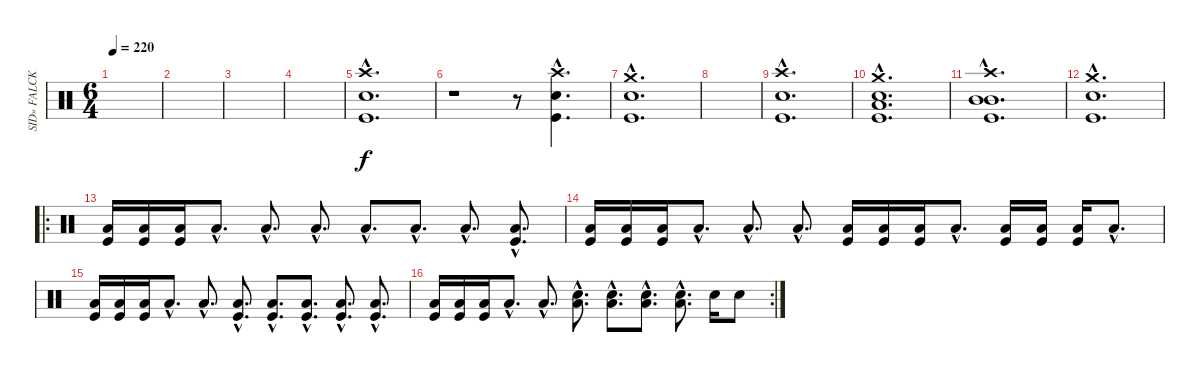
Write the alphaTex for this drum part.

\track ("SID» FALCK- Drums " "SID» FALCK") {instrument percussion}
\staff {score}
\articulation defaults
\ts (6 4)
\tempo 220
\clef neutral
\ks c
|
|
|
|
("Crash high (hit)"{hac} "Electric Snare (hit)"{hac} "Kick (hit)"{hac}).1{d} |
r.1 r.8 ("Crash high (hit)"{hac} "Electric Snare (hit)"{hac} "Kick (hit)"{hac}).4{d} |
("Crash medium (hit)"{hac} "Electric Snare (hit)"{hac} "Kick (hit)"{hac}).1{d} |
|
("Crash high (hit)"{hac} "Electric Snare (hit)"{hac} "Kick (hit)"{hac}).1{d} |
("Crash medium (hit)"{hac} "Electric Snare (hit)"{hac} "Low Tom (hit)"{hac} "Kick (hit)"{hac}).1{d} |
("Crash high (hit)"{hac} "Mid Tom (hit)"{hac} "Mid Tom (hit)"{hac} "Kick (hit)"{hac}).1{d} |
("Crash medium (hit)"{hac} "Electric Snare (hit)"{hac} "Kick (hit)"{hac}).1{d} |
\ro
("Low Tom (hit)" "Kick (hit)").16 ("Low Tom (hit)" "Kick (hit)").16 ("Low Tom (hit)" "Kick (hit)").16 "Low Tom (hit)"{hac}.8{d} "Low Tom (hit)"{hac}.8{d} "Low Tom (hit)"{hac}.8{d} "Low Tom (hit)"{hac}.8{d} "Low Tom (hit)"{hac}.8{d} "Low Tom (hit)"{hac}.8{d} ("Low Tom (hit)"{hac} "Kick (hit)"{hac}).8{d} |
("Low Tom (hit)" "Kick (hit)").16 ("Low Tom (hit)" "Kick (hit)").16 ("Low Tom (hit)" "Kick (hit)").16 "Low Tom (hit)"{hac}.8{d} "Low Tom (hit)"{hac}.8{d} "Low Tom (hit)"{hac}.8{d} ("Low Tom (hit)" "Kick (hit)").16 ("Low Tom (hit)" "Kick (hit)").16 ("Low Tom (hit)" "Kick (hit)").16 "Low Tom (hit)"{hac}.8{d} ("Low Tom (hit)" "Kick (hit)").16 ("Low Tom (hit)" "Kick (hit)").16 ("Low Tom (hit)" "Kick (hit)").16 "Low Tom (hit)"{hac}.8{d} |
("Low Tom (hit)" "Kick (hit)").16 ("Low Tom (hit)" "Kick (hit)").16 ("Low Tom (hit)" "Kick (hit)").16 "Low Tom (hit)"{hac}.8{d} "Low Tom (hit)"{hac}.8{d} ("Low Tom (hit)"{hac} "Kick (hit)"{hac}).8{d} ("Low Tom (hit)"{hac} "Kick (hit)"{hac}).8{d} ("Low Tom (hit)"{hac} "Kick (hit)"{hac}).8{d} ("Low Tom (hit)"{hac} "Kick (hit)"{hac}).8{d} ("Low Tom (hit)"{hac} "Kick (hit)"{hac}).8{d} |
\rc 2
("Low Tom (hit)" "Kick (hit)").16 ("Low Tom (hit)" "Kick (hit)").16 ("Low Tom (hit)" "Kick (hit)").16 "Low Tom (hit)"{hac}.8{d} "Low Tom (hit)"{hac}.8{d} ("Low Tom (hit)"{hac} "Electric Snare (hit)"{hac}).8{d} ("Low Tom (hit)"{hac} "Electric Snare (hit)"{hac}).8{d} ("Low Tom (hit)"{hac} "Electric Snare (hit)"{hac}).8{d} ("Low Tom (hit)"{hac} "Electric Snare (hit)"{hac}).8{d} "Electric Snare (hit)".16 "Electric Snare (hit)".8
